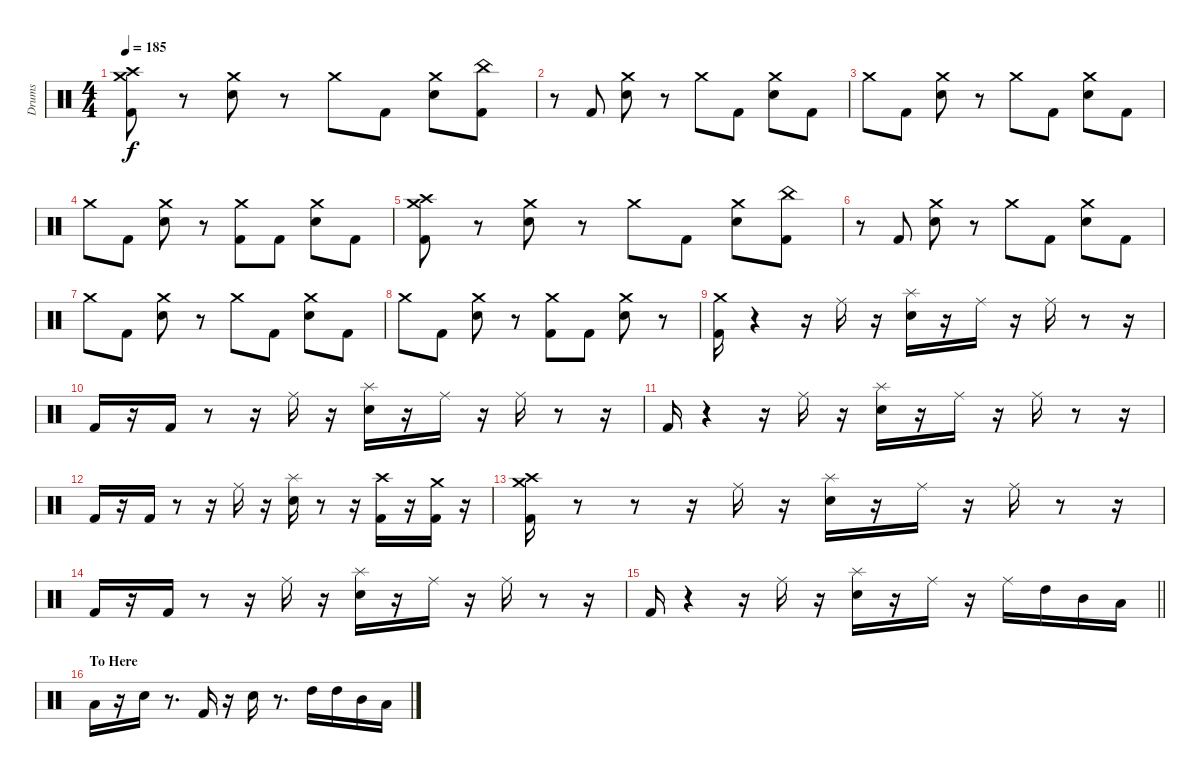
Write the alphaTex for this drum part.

\track ("Drums" "Drums") {solo instrument percussion}
\staff {score}
\articulation defaults
\ts (4 4)
\tempo 185
\clef neutral
\ks c
("Crash medium (hit)" "Crash high (hit)" "Kick (hit) 2").8{dy f} r.8 ("Crash medium (hit)" "Snare (hit) 2").8 r.8 "Crash medium (hit)".8 "Kick (hit) 2".8 ("Crash medium (hit)" "Snare (hit) 2").8 ("China (hit)" "Kick (hit) 2").8 |
r.8 "Kick (hit) 2".8 ("Crash medium (hit)" "Snare (hit) 2").8 r.8 "Crash medium (hit)".8 "Kick (hit) 2".8 ("Crash medium (hit)" "Snare (hit) 2").8 "Kick (hit) 2".8 |
"Crash medium (hit)".8 "Kick (hit) 2".8 ("Crash medium (hit)" "Snare (hit) 2").8 r.8 "Crash medium (hit)".8 "Kick (hit) 2".8 ("Crash medium (hit)" "Snare (hit) 2").8 "Kick (hit) 2".8 |
"Crash medium (hit)".8 "Kick (hit) 2".8 ("Crash medium (hit)" "Snare (hit) 2").8 r.8 ("Crash medium (hit)" "Kick (hit) 2").8 "Kick (hit) 2".8 ("Crash medium (hit)" "Snare (hit) 2").8 "Kick (hit) 2".8 |
("Crash medium (hit)" "Crash high (hit)" "Kick (hit) 2").8 r.8 ("Crash medium (hit)" "Snare (hit) 2").8 r.8 "Crash medium (hit)".8 "Kick (hit) 2".8 ("Crash medium (hit)" "Snare (hit) 2").8 ("China (hit)" "Kick (hit) 2").8 |
r.8 "Kick (hit) 2".8 ("Crash medium (hit)" "Snare (hit) 2").8 r.8 "Crash medium (hit)".8 "Kick (hit) 2".8 ("Crash medium (hit)" "Snare (hit) 2").8 "Kick (hit) 2".8 |
"Crash medium (hit)".8 "Kick (hit) 2".8 ("Crash medium (hit)" "Snare (hit) 2").8 r.8 "Crash medium (hit)".8 "Kick (hit) 2".8 ("Crash medium (hit)" "Snare (hit) 2").8 "Kick (hit) 2".8 |
"Crash medium (hit)".8 "Kick (hit) 2".8 ("Crash medium (hit)" "Snare (hit) 2").8 r.8 ("Crash medium (hit)" "Kick (hit) 2").8 "Kick (hit) 2".8 ("Crash medium (hit)" "Snare (hit) 2").8 r.8 |
("Crash medium (hit)" "Kick (hit) 2").16 r.4 r.16 "Ride (middle)".16 r.16 ("Splash (hit)" "Snare (hit) 2").16 r.16 "Ride (middle)".16 r.16 "Ride (middle)".16 r.8 r.16 |
"Kick (hit) 2".16 r.16 "Kick (hit) 2".16 r.8 r.16 "Ride (middle)".16 r.16 ("Splash (hit)" "Snare (hit) 2").16 r.16 "Ride (middle)".16 r.16 "Ride (middle)".16 r.8 r.16 |
"Kick (hit) 2".16 r.4 r.16 "Ride (middle)".16 r.16 ("Splash (hit)" "Snare (hit) 2").16 r.16 "Ride (middle)".16 r.16 "Ride (middle)".16 r.8 r.16 |
"Kick (hit) 2".16 r.16 "Kick (hit) 2".16 r.8 r.16 "Ride (middle)".16 r.16 ("Splash (hit)" "Snare (hit) 2").16 r.8 r.16 ("Crash high (hit)" "Kick (hit) 2").16 r.16 ("Crash medium (hit)" "Kick (hit) 2").16 r.16 |
("Crash medium (hit)" "Crash high (hit)" "Kick (hit) 2").16 r.8 r.8 r.16 "Ride (middle)".16 r.16 ("Splash (hit)" "Snare (hit) 2").16 r.16 "Ride (middle)".16 r.16 "Ride (middle)".16 r.8 r.16 |
"Kick (hit) 2".16 r.16 "Kick (hit) 2".16 r.8 r.16 "Ride (middle)".16 r.16 ("Splash (hit)" "Snare (hit) 2").16 r.16 "Ride (middle)".16 r.16 "Ride (middle)".16 r.8 r.16 |
\barLineRight lightlight "Kick (hit) 2".16
r.4 r.16 "Ride (middle)".16 r.16 ("Splash (hit)" "Snare (hit) 2").16 r.16 "Ride (middle)".16 r.16 "Ride (middle)".16 "High Tom (hit)".16 "Mid Tom (hit)".16 "Low Tom (hit)".16 |
\section ("" "To Here")
"Low Tom (hit)".16 r.16 "Snare (hit) 2".16 r.8{d} "Kick (hit) 2".16 r.16 "Snare (hit) 2".16 r.8{d} "High Tom (hit)".16 "High Tom (hit)".16 "Mid Tom (hit)".16 "Low Tom (hit)".16
